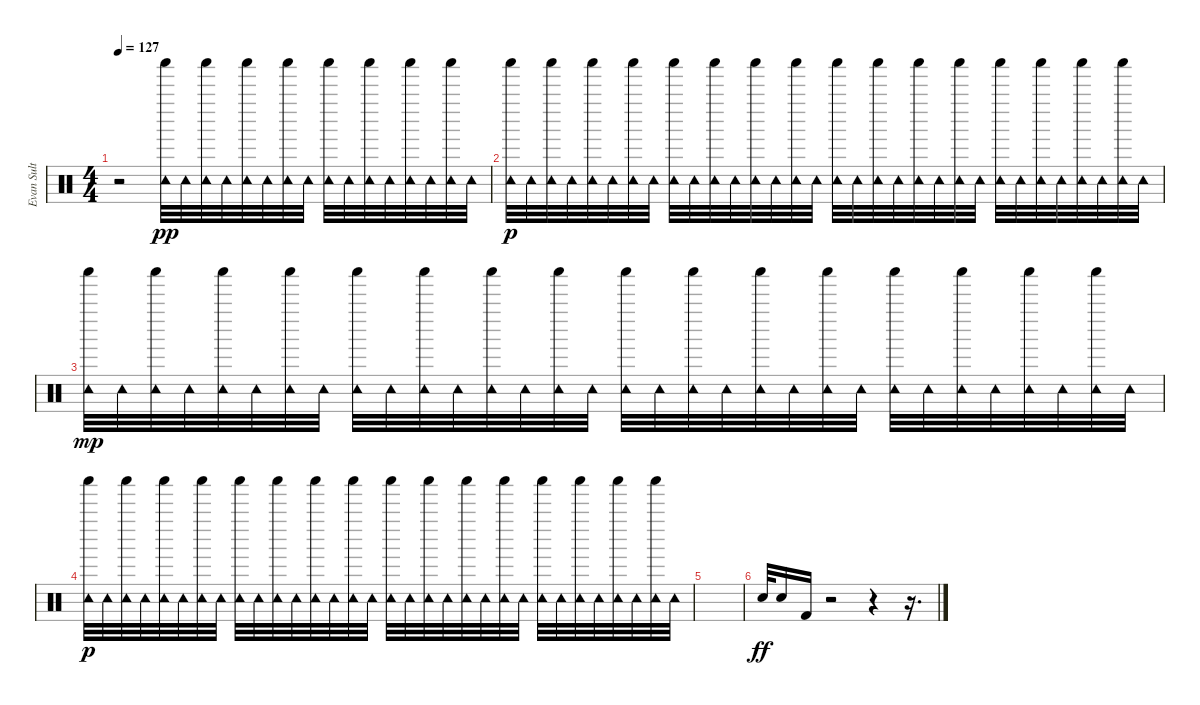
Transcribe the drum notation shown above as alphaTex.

\track ("Evan Sult" "Evan Sult") {instrument percussion}
\staff {score}
\articulation defaults
\ts (4 4)
\tempo 127
\clef neutral
\ks c
r.2{dy ff} ("Shaker (hit)" "Tambourine (hit)").32{dy pp} "Tambourine (hit)".32 ("Shaker (hit)" "Tambourine (hit)").32 "Tambourine (hit)".32 ("Shaker (hit)" "Tambourine (hit)").32 "Tambourine (hit)".32 ("Shaker (hit)" "Tambourine (hit)").32 "Tambourine (hit)".32 ("Shaker (hit)" "Tambourine (hit)").32 "Tambourine (hit)".32 ("Shaker (hit)" "Tambourine (hit)").32 "Tambourine (hit)".32 ("Shaker (hit)" "Tambourine (hit)").32 "Tambourine (hit)".32 ("Shaker (hit)" "Tambourine (hit)").32 "Tambourine (hit)".32 |
("Shaker (hit)" "Tambourine (hit)").32{dy p} "Tambourine (hit)".32 ("Shaker (hit)" "Tambourine (hit)").32 "Tambourine (hit)".32 ("Shaker (hit)" "Tambourine (hit)").32 "Tambourine (hit)".32 ("Shaker (hit)" "Tambourine (hit)").32 "Tambourine (hit)".32 ("Shaker (hit)" "Tambourine (hit)").32 "Tambourine (hit)".32 ("Shaker (hit)" "Tambourine (hit)").32 "Tambourine (hit)".32 ("Shaker (hit)" "Tambourine (hit)").32 "Tambourine (hit)".32 ("Shaker (hit)" "Tambourine (hit)").32 "Tambourine (hit)".32 ("Shaker (hit)" "Tambourine (hit)").32 "Tambourine (hit)".32 ("Shaker (hit)" "Tambourine (hit)").32 "Tambourine (hit)".32 ("Shaker (hit)" "Tambourine (hit)").32 "Tambourine (hit)".32 ("Shaker (hit)" "Tambourine (hit)").32 "Tambourine (hit)".32 ("Shaker (hit)" "Tambourine (hit)").32 "Tambourine (hit)".32 ("Shaker (hit)" "Tambourine (hit)").32 "Tambourine (hit)".32 ("Shaker (hit)" "Tambourine (hit)").32 "Tambourine (hit)".32 ("Shaker (hit)" "Tambourine (hit)").32 "Tambourine (hit)".32 |
("Shaker (hit)" "Tambourine (hit)").32{dy mp} "Tambourine (hit)".32 ("Shaker (hit)" "Tambourine (hit)").32 "Tambourine (hit)".32 ("Shaker (hit)" "Tambourine (hit)").32 "Tambourine (hit)".32 ("Shaker (hit)" "Tambourine (hit)").32 "Tambourine (hit)".32 ("Shaker (hit)" "Tambourine (hit)").32 "Tambourine (hit)".32 ("Shaker (hit)" "Tambourine (hit)").32 "Tambourine (hit)".32 ("Shaker (hit)" "Tambourine (hit)").32 "Tambourine (hit)".32 ("Shaker (hit)" "Tambourine (hit)").32 "Tambourine (hit)".32 ("Shaker (hit)" "Tambourine (hit)").32 "Tambourine (hit)".32 ("Shaker (hit)" "Tambourine (hit)").32 "Tambourine (hit)".32 ("Shaker (hit)" "Tambourine (hit)").32 "Tambourine (hit)".32 ("Shaker (hit)" "Tambourine (hit)").32 "Tambourine (hit)".32 ("Shaker (hit)" "Tambourine (hit)").32 "Tambourine (hit)".32 ("Shaker (hit)" "Tambourine (hit)").32 "Tambourine (hit)".32 ("Shaker (hit)" "Tambourine (hit)").32 "Tambourine (hit)".32 ("Shaker (hit)" "Tambourine (hit)").32 "Tambourine (hit)".32 |
("Shaker (hit)" "Tambourine (hit)").32{dy p} "Tambourine (hit)".32 ("Shaker (hit)" "Tambourine (hit)").32 "Tambourine (hit)".32 ("Shaker (hit)" "Tambourine (hit)").32 "Tambourine (hit)".32 ("Shaker (hit)" "Tambourine (hit)").32 "Tambourine (hit)".32 ("Shaker (hit)" "Tambourine (hit)").32 "Tambourine (hit)".32 ("Shaker (hit)" "Tambourine (hit)").32 "Tambourine (hit)".32 ("Shaker (hit)" "Tambourine (hit)").32 "Tambourine (hit)".32 ("Shaker (hit)" "Tambourine (hit)").32 "Tambourine (hit)".32 ("Shaker (hit)" "Tambourine (hit)").32 "Tambourine (hit)".32 ("Shaker (hit)" "Tambourine (hit)").32 "Tambourine (hit)".32 ("Shaker (hit)" "Tambourine (hit)").32 "Tambourine (hit)".32 ("Shaker (hit)" "Tambourine (hit)").32 "Tambourine (hit)".32 ("Shaker (hit)" "Tambourine (hit)").32 "Tambourine (hit)".32 ("Shaker (hit)" "Tambourine (hit)").32 "Tambourine (hit)".32 ("Shaker (hit)" "Tambourine (hit)").32 "Tambourine (hit)".32 ("Shaker (hit)" "Tambourine (hit)").32 "Tambourine (hit)".32 |
|
"Snare (hit) 2".32{dy ff} "Snare (hit) 2".16 "Kick (hit) 2".16 r.2 r.4 r.16{d}
